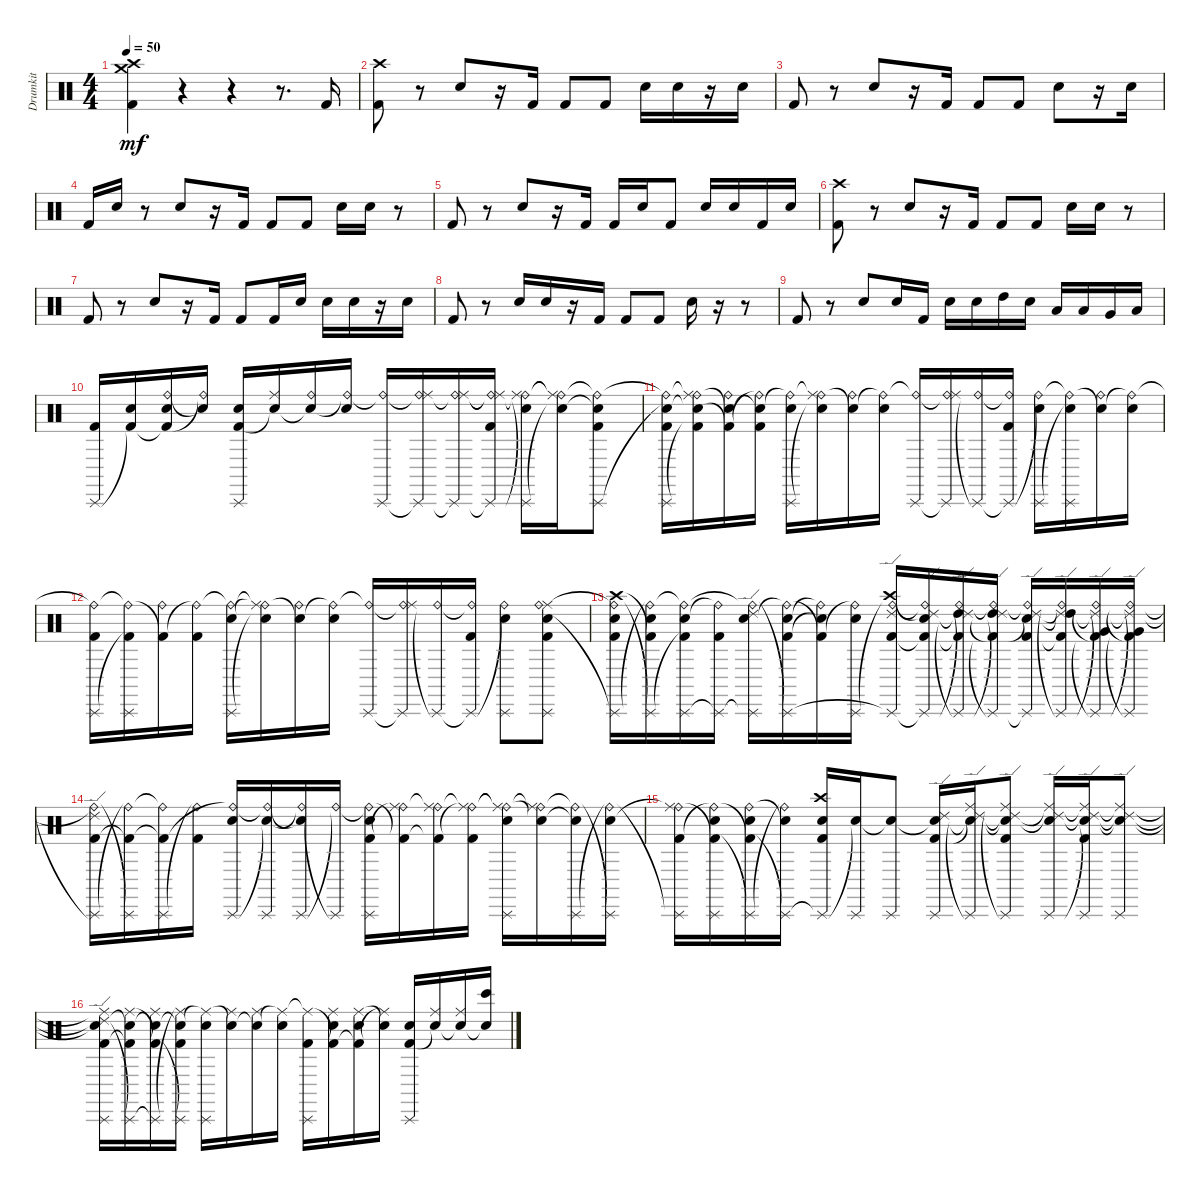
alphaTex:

\track ("Drumkit" "Drumkit") {instrument percussion}
\staff {score}
\articulation defaults
\ts (4 4)
\tempo 50
\clef neutral
\ks c
("Kick (hit) 2" "Crash high (hit)" "Crash medium (hit)").4{dy mf} r.4 r.4 r.8{d} "Kick (hit) 2".16 |
("Kick (hit) 2" "Crash high (hit)").8 r.8 "Snare (hit) 2".8 r.16 "Kick (hit) 2".16 "Kick (hit) 2".8 "Kick (hit) 2".8 "Snare (hit) 2".16 "Snare (hit) 2".16 r.16 "Snare (hit) 2".16 |
"Kick (hit) 2".8 r.8 "Snare (hit) 2".8 r.16 "Kick (hit) 2".16 "Kick (hit) 2".8 "Kick (hit) 2".8 "Snare (hit) 2".8 r.16 "Snare (hit) 2".16 |
"Kick (hit) 2".16 "Snare (hit) 2".16 r.8 "Snare (hit) 2".8 r.16 "Kick (hit) 2".16 "Kick (hit) 2".8 "Kick (hit) 2".8 "Snare (hit) 2".16 "Snare (hit) 2".16 r.8 |
"Kick (hit) 2".8 r.8 "Snare (hit) 2".8 r.16 "Kick (hit) 2".16 "Kick (hit) 2".16 "Snare (hit) 2".16 "Kick (hit) 2".8 "Snare (hit) 2".16 "Snare (hit) 2".16 "Kick (hit) 2".16 "Snare (hit) 2".16 |
("Kick (hit) 2" "Crash high (hit)").8 r.8 "Snare (hit) 2".8 r.16 "Kick (hit) 2".16 "Kick (hit) 2".8 "Kick (hit) 2".8 "Snare (hit) 2".16 "Snare (hit) 2".16 r.8 |
"Kick (hit) 2".8 r.8 "Snare (hit) 2".8 r.16 "Kick (hit) 2".16 "Kick (hit) 2".8 "Kick (hit) 2".16 "Snare (hit) 2".16 "Snare (hit) 2".16 "Snare (hit) 2".16 r.16 "Snare (hit) 2".16 |
"Kick (hit) 2".8 r.8 "Snare (hit) 2".16 "Snare (hit) 2".16 r.16 "Kick (hit) 2".16 "Kick (hit) 2".8 "Kick (hit) 2".8 "Snare (hit) 2".16 r.16 r.8 |
"Kick (hit) 2".8 r.8 "Snare (hit) 2".8 "Snare (hit) 2".16 "Kick (hit) 2".16 "Snare (hit) 2".16 "Snare (hit) 2".16 "High Tom (hit)".16 "Snare (hit) 2".16 "Low Tom (hit)".16 "Low Tom (hit)".16 "Very Low Tom (hit)".16 "Low Floor Tom (hit)".16 |
("Piatti (hand)" "Kick (hit) 2").16 ("Kick (hit) 2"{t} "Snare (hit) 2").16 ("Kick (hit) 2"{t} "Ride (bell)" "Snare (hit) 2").16 ("Ride (bell)"{t} "Snare (hit) 2"{t}).16 ("Kick (hit) 2" "Piatti (hand)" "Snare (hit) 2").16 ("Snare (hit) 2"{t} "Ride (middle)").16 ("Snare (hit) 2"{t} "Ride (bell)").16 ("Ride (bell)"{t} "Snare (hit) 2").16 ("Ride (bell)"{t} "Piatti (hand)").16 ("Ride (bell)"{t} "Piatti (hand)"{t} "Ride (middle)").16 ("Ride (bell)"{t} "Piatti (hand)"{t} "Ride (middle)").16 ("Ride (bell)"{t} "Piatti (hand)"{t} "Ride (middle)"{t} "Kick (hit) 2").16 ("Ride (bell)"{t} "Ride (middle)"{t} "Piatti (hand)" "Snare (hit) 2").16 ("Ride (bell)"{t} "Ride (middle)"{t} "Snare (hit) 2"{t}).16 ("Ride (bell)"{t} "Piatti (hand)" "Snare (hit) 2"{t} "Kick (hit) 2").8 |
("Ride (bell)"{t} "Snare (hit) 2"{t} "Piatti (hand)" "Kick (hit) 2").16 ("Ride (bell)"{t} "Snare (hit) 2"{t} "Kick (hit) 2"{t} "Ride (middle)").16 ("Snare (hit) 2"{t} "Kick (hit) 2"{t} "Ride (bell)").16 ("Snare (hit) 2"{t} "Ride (bell)"{t} "Kick (hit) 2").16 ("Ride (bell)"{t} "Piatti (hand)" "Snare (hit) 2").16 ("Ride (bell)"{t} "Snare (hit) 2"{t} "Ride (middle)").16 ("Snare (hit) 2"{t} "Ride (bell)").16 ("Ride (bell)"{t} "Snare (hit) 2").16 ("Ride (bell)"{t} "Piatti (hand)").16 ("Ride (bell)"{t} "Piatti (hand)"{t} "Ride (middle)").16 ("Piatti (hand)"{t} "Ride (bell)").16 ("Piatti (hand)"{t} "Ride (bell)"{t} "Kick (hit) 2").16 ("Ride (bell)"{t} "Piatti (hand)" "Snare (hit) 2").16 ("Ride (bell)"{t} "Snare (hit) 2"{t} "Piatti (hand)").16 ("Snare (hit) 2"{t} "Ride (bell)").16 ("Ride (bell)"{t} "Snare (hit) 2").16 |
("Ride (bell)"{t} "Piatti (hand)" "Kick (hit) 2").16 ("Ride (bell)"{t} "Kick (hit) 2"{t} "Piatti (hand)").16 ("Kick (hit) 2"{t} "Ride (bell)").16 ("Ride (bell)"{t} "Kick (hit) 2").16 ("Ride (bell)"{t} "Piatti (hand)" "Snare (hit) 2").16 ("Ride (bell)"{t} "Snare (hit) 2"{t} "Ride (middle)"{t}).16 ("Snare (hit) 2"{t} "Ride (bell)").16 ("Ride (bell)"{t} "Snare (hit) 2").16 ("Ride (bell)"{t} "Piatti (hand)").16 ("Ride (bell)"{t} "Piatti (hand)"{t} "Ride (middle)").16 ("Piatti (hand)"{t} "Ride (bell)").16 ("Piatti (hand)"{t} "Ride (bell)"{t} "Kick (hit) 2").16 ("Ride (bell)"{t} "Snare (hit) 2" "Piatti (hand)").8 ("Ride (middle)" "Piatti (hand)" "Ride (bell)" "Snare (hit) 2" "Kick (hit) 2").8 |
("Kick (hit) 2" "Crash high (hit)" "Ride (bell)"{t} "Piatti (hand)"{t} "Snare (hit) 2").16 ("Snare (hit) 2" "Kick (hit) 2"{t} "Piatti (hand)"{t} "Ride (bell)"{t}).16 ("Piatti (hand)" "Snare (hit) 2" "Kick (hit) 2"{t} "Ride (bell)"{t}).16 ("Piatti (hand)"{t} "Ride (bell)"{t} "Kick (hit) 2").16 ("Piatti (hand)"{t} "Ride (edge) 2" "Snare (hit) 2" "Ride (bell)"{t}).16 ("Kick (hit) 2" "Snare (hit) 2" "Ride (bell)"{t} "Piatti (hand)"{t}).16 ("Snare (hit) 2"{t} "Ride (bell)"{t} "Kick (hit) 2"{t}).16 ("Piatti (hand)" "Snare (hit) 2" "Ride (bell)"{t}).16 ("Ride (bell)"{t} "Ride (edge) 2" "Crash high (hit)" "Piatti (hand)"{t} "Kick (hit) 2").16 ("Ride (bell)"{t} "Snare (hit) 2" "Ride (edge) 2"{t} "Piatti (hand)"{t} "Kick (hit) 2"{t}).16 ("High Tom (hit)" "Piatti (hand)"{t} "Ride (edge) 2"{t} "Ride (bell)"{t} "Kick (hit) 2"{t}).16 ("High Tom (hit)" "Ride (edge) 2"{t} "Kick (hit) 2"{t} "Ride (bell)"{t} "Piatti (hand)"{t}).16 ("Kick (hit) 2" "Snare (hit) 2" "Ride (edge) 2"{t} "Ride (bell)"{t} "Piatti (hand)"{t}).16 ("Kick (hit) 2"{t} "Ride (edge) 2"{t} "Ride (bell)"{t} "Piatti (hand)"{t} "High Tom (hit)").16 ("Piatti (hand)"{t} "Ride (edge) 2"{t} "Kick (hit) 2"{t} "Ride (bell)"{t} "Very Low Tom (hit)").16 ("Ride (bell)"{t} "Ride (edge) 2"{t} "Very Low Tom (hit)" "Kick (hit) 2"{t} "Piatti (hand)"{t}).16 |
("Piatti (hand)"{t} "Ride (bell)"{t} "Kick (hit) 2" "Ride (edge) 2").16 ("Ride (bell)"{t} "Piatti (hand)"{t} "Kick (hit) 2"{t}).16 ("Ride (bell)"{t} "Piatti (hand)" "Kick (hit) 2"{t}).16 ("Kick (hit) 2" "Ride (bell)"{t}).16 ("Piatti (hand)" "Snare (hit) 2" "Ride (bell)"{t}).16 ("Snare (hit) 2"{t} "Piatti (hand)" "Ride (bell)"{t}).16 ("Ride (bell)"{t} "Piatti (hand)" "Snare (hit) 2"{t}).16 ("Piatti (hand)"{t} "Ride (bell)"{t}).16 ("Kick (hit) 2" "Ride (bell)"{t} "Piatti (hand)" "Snare (hit) 2").16 ("Ride (bell)"{t} "Kick (hit) 2"{t} "Ride (middle)").16 ("Ride (bell)"{t} "Kick (hit) 2"{t} "Ride (middle)").16 ("Ride (bell)"{t} "Ride (middle)"{t} "Kick (hit) 2").16 ("Ride (bell)"{t} "Ride (middle)"{t} "Piatti (hand)" "Snare (hit) 2").16 ("Ride (bell)"{t} "Snare (hit) 2"{t} "Ride (middle)").16 ("Ride (bell)"{t} "Snare (hit) 2"{t} "Piatti (hand)").16 ("Piatti (hand)"{t} "Snare (hit) 2" "Ride (bell)"{t}).16 |
("Kick (hit) 2" "Ride (bell)"{t} "Piatti (hand)"{t} "Ride (middle)").16 ("Ride (bell)"{t} "Kick (hit) 2"{t} "Snare (hit) 2" "Piatti (hand)").16 ("Kick (hit) 2"{t} "Piatti (hand)"{t} "Ride (bell)" "Snare (hit) 2").16 ("Piatti (hand)"{t} "Ride (bell)"{t} "Snare (hit) 2"{t}).16 ("Piatti (hand)"{t} "Kick (hit) 2" "Crash high (hit)" "Snare (hit) 2").16 ("Snare (hit) 2"{t} "Piatti (hand)").16 ("Snare (hit) 2"{t} "Piatti (hand)").8 ("Snare (hit) 2"{t} "Kick (hit) 2" "Ride (edge) 2" "Piatti (hand)").16 ("Snare (hit) 2"{t} "Ride (edge) 2"{t} "Piatti (hand)"{t} "Ride (middle)").16 ("Snare (hit) 2"{t} "Ride (edge) 2"{t} "Kick (hit) 2" "Piatti (hand)"{t} "Ride (middle)").8 ("Ride (edge) 2"{t} "Ride (middle)"{t} "Piatti (hand)" "Snare (hit) 2").16 ("Ride (edge) 2"{t} "Ride (middle)"{t} "Snare (hit) 2"{t} "Kick (hit) 2" "Piatti (hand)").16 ("Ride (edge) 2"{t} "Ride (middle)"{t} "Snare (hit) 2"{t} "Piatti (hand)").8 |
("Ride (edge) 2"{t} "Ride (middle)"{t} "Snare (hit) 2"{t} "Kick (hit) 2" "Piatti (hand)").16 ("Snare (hit) 2"{t} "Ride (middle)" "Piatti (hand)"{t} "Kick (hit) 2"{t}).16 ("Snare (hit) 2"{t} "Kick (hit) 2"{t} "Piatti (hand)"{t} "Ride (middle)").16 ("Snare (hit) 2"{t} "Piatti (hand)"{t} "Ride (middle)"{t} "Kick (hit) 2").16 ("Ride (middle)"{t} "Piatti (hand)" "Snare (hit) 2").16 ("Snare (hit) 2"{t} "Ride (middle)").16 ("Snare (hit) 2"{t} "Ride (middle)").16 ("Ride (middle)"{t} "Snare (hit) 2").16 ("Ride (middle)"{t} "Piatti (hand)" "Kick (hit) 2").16 ("Kick (hit) 2"{t} "Snare (hit) 2" "Ride (middle)").16 ("Kick (hit) 2"{t} "Ride (middle)" "Snare (hit) 2").16 ("Ride (middle)"{t} "Snare (hit) 2"{t}).16 ("Kick (hit) 2" "Piatti (hand)" "Snare (hit) 2").16 ("Snare (hit) 2"{t} "Ride (middle)").16 ("Snare (hit) 2"{t} "Ride (middle)").16 ("Snare (hit) 2"{t} "Bongo High (hit)").16
